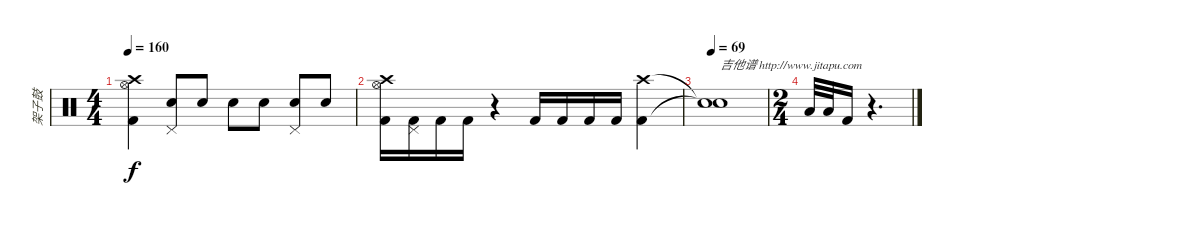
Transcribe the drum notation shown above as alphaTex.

\track ("架子鼓" "架子鼓") {instrument percussion}
\staff {score}
\articulation defaults
\ts (4 4)
\tempo 160
\clef neutral
\ks c
("Kick (hit) 2" "Hi-Hat (open)" "Crash high (hit)").4{dy f} ("Electric Snare (hit)" "Pedal Hi-Hat (hit)").8 "Electric Snare (hit)".8 "Electric Snare (hit)".8 "Electric Snare (hit)".8 ("Electric Snare (hit)" "Pedal Hi-Hat (hit)").8 "Electric Snare (hit)".8 |
("Kick (hit) 2" "Hi-Hat (open)" "Crash high (hit)").16 ("Kick (hit) 2" "Pedal Hi-Hat (hit)").16 "Kick (hit) 2".16 "Kick (hit) 2".16 r.4 "Kick (hit) 2".16 "Kick (hit) 2".16 "Kick (hit) 2".16 "Kick (hit) 2".16 ("Kick (hit) 2" "Crash high (hit)").4 |
\tempo 69
("Snare (hit)"{t} "Snare (hit)"{t}).1{txt "吉他谱 http://www.jitapu.com"} |
\ts (2 4)
"Low Floor Tom (hit)".32 "Low Floor Tom (hit)".32 "Kick (hit) 2".16 r.4{d}
